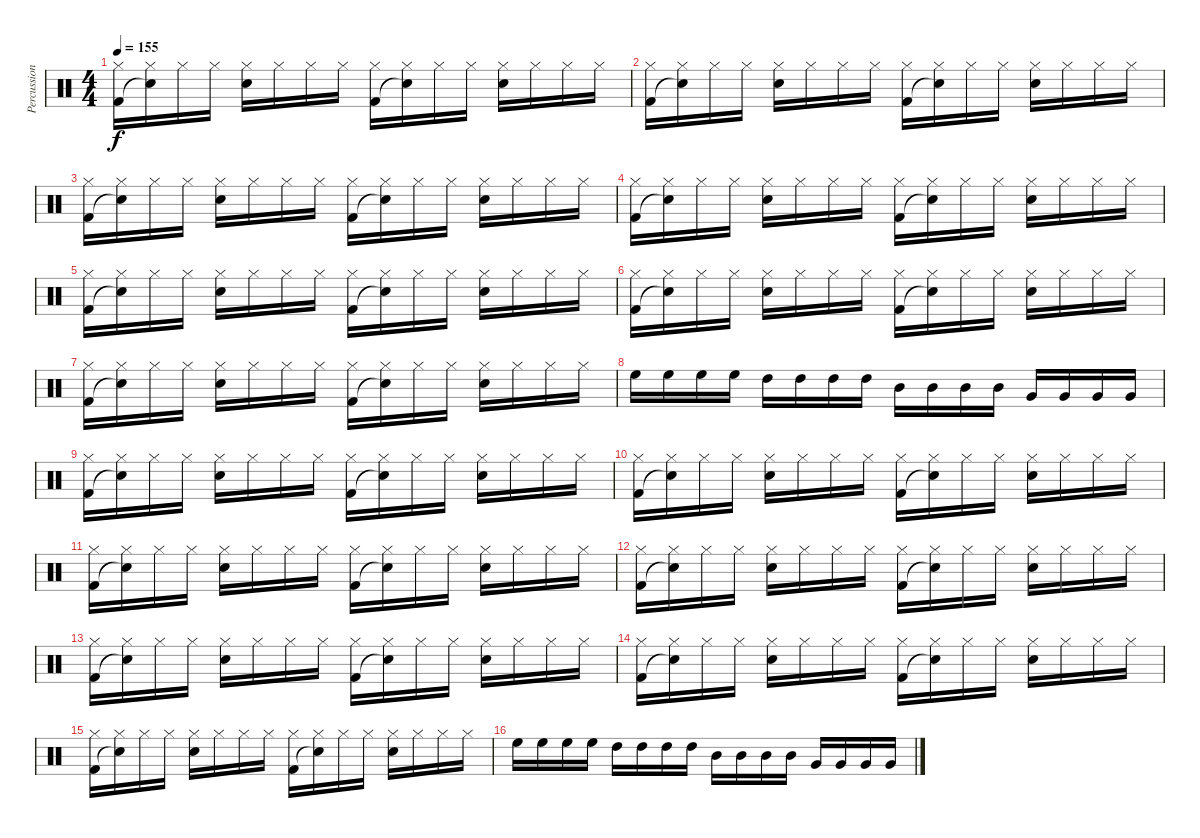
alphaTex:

\track ("Percussion" "Percussion") {instrument percussion}
\staff {score}
\articulation defaults
\ts (4 4)
\tempo 155
\clef neutral
\ks c
("Hi-Hat (closed)" "Kick (hit) 2").16{dy f} ("Hi-Hat (closed)" "Snare (hit)"{t}).16 "Hi-Hat (closed)".16 "Hi-Hat (closed)".16 ("Hi-Hat (closed)" "Snare (hit) 2").16 "Hi-Hat (closed)".16 "Hi-Hat (closed)".16 "Hi-Hat (closed)".16 ("Hi-Hat (closed)" "Kick (hit) 2").16 ("Hi-Hat (closed)" "Snare (hit)"{t}).16 "Hi-Hat (closed)".16 "Hi-Hat (closed)".16 ("Hi-Hat (closed)" "Snare (hit) 2").16 "Hi-Hat (closed)".16 "Hi-Hat (closed)".16 "Hi-Hat (closed)".16 |
("Hi-Hat (closed)" "Kick (hit) 2").16 ("Hi-Hat (closed)" "Snare (hit)"{t}).16 "Hi-Hat (closed)".16 "Hi-Hat (closed)".16 ("Hi-Hat (closed)" "Snare (hit) 2").16 "Hi-Hat (closed)".16 "Hi-Hat (closed)".16 "Hi-Hat (closed)".16 ("Hi-Hat (closed)" "Kick (hit) 2").16 ("Hi-Hat (closed)" "Snare (hit)"{t}).16 "Hi-Hat (closed)".16 "Hi-Hat (closed)".16 ("Hi-Hat (closed)" "Snare (hit) 2").16 "Hi-Hat (closed)".16 "Hi-Hat (closed)".16 "Hi-Hat (closed)".16 |
("Hi-Hat (closed)" "Kick (hit) 2").16 ("Hi-Hat (closed)" "Snare (hit)"{t}).16 "Hi-Hat (closed)".16 "Hi-Hat (closed)".16 ("Hi-Hat (closed)" "Snare (hit) 2").16 "Hi-Hat (closed)".16 "Hi-Hat (closed)".16 "Hi-Hat (closed)".16 ("Hi-Hat (closed)" "Kick (hit) 2").16 ("Hi-Hat (closed)" "Snare (hit)"{t}).16 "Hi-Hat (closed)".16 "Hi-Hat (closed)".16 ("Hi-Hat (closed)" "Snare (hit) 2").16 "Hi-Hat (closed)".16 "Hi-Hat (closed)".16 "Hi-Hat (closed)".16 |
("Hi-Hat (closed)" "Kick (hit) 2").16 ("Hi-Hat (closed)" "Snare (hit)"{t}).16 "Hi-Hat (closed)".16 "Hi-Hat (closed)".16 ("Hi-Hat (closed)" "Snare (hit) 2").16 "Hi-Hat (closed)".16 "Hi-Hat (closed)".16 "Hi-Hat (closed)".16 ("Hi-Hat (closed)" "Kick (hit) 2").16 ("Hi-Hat (closed)" "Snare (hit)"{t}).16 "Hi-Hat (closed)".16 "Hi-Hat (closed)".16 ("Hi-Hat (closed)" "Snare (hit) 2").16 "Hi-Hat (closed)".16 "Hi-Hat (closed)".16 "Hi-Hat (closed)".16 |
("Hi-Hat (closed)" "Kick (hit) 2").16 ("Hi-Hat (closed)" "Snare (hit)"{t}).16 "Hi-Hat (closed)".16 "Hi-Hat (closed)".16 ("Hi-Hat (closed)" "Snare (hit) 2").16 "Hi-Hat (closed)".16 "Hi-Hat (closed)".16 "Hi-Hat (closed)".16 ("Hi-Hat (closed)" "Kick (hit) 2").16 ("Hi-Hat (closed)" "Snare (hit)"{t}).16 "Hi-Hat (closed)".16 "Hi-Hat (closed)".16 ("Hi-Hat (closed)" "Snare (hit) 2").16 "Hi-Hat (closed)".16 "Hi-Hat (closed)".16 "Hi-Hat (closed)".16 |
("Hi-Hat (closed)" "Kick (hit) 2").16 ("Hi-Hat (closed)" "Snare (hit)"{t}).16 "Hi-Hat (closed)".16 "Hi-Hat (closed)".16 ("Hi-Hat (closed)" "Snare (hit) 2").16 "Hi-Hat (closed)".16 "Hi-Hat (closed)".16 "Hi-Hat (closed)".16 ("Hi-Hat (closed)" "Kick (hit) 2").16 ("Hi-Hat (closed)" "Snare (hit)"{t}).16 "Hi-Hat (closed)".16 "Hi-Hat (closed)".16 ("Hi-Hat (closed)" "Snare (hit) 2").16 "Hi-Hat (closed)".16 "Hi-Hat (closed)".16 "Hi-Hat (closed)".16 |
("Hi-Hat (closed)" "Kick (hit) 2").16 ("Hi-Hat (closed)" "Snare (hit)"{t}).16 "Hi-Hat (closed)".16 "Hi-Hat (closed)".16 ("Hi-Hat (closed)" "Snare (hit) 2").16 "Hi-Hat (closed)".16 "Hi-Hat (closed)".16 "Hi-Hat (closed)".16 ("Hi-Hat (closed)" "Kick (hit) 2").16 ("Hi-Hat (closed)" "Snare (hit)"{t}).16 "Hi-Hat (closed)".16 "Hi-Hat (closed)".16 ("Hi-Hat (closed)" "Snare (hit) 2").16 "Hi-Hat (closed)".16 "Hi-Hat (closed)".16 "Hi-Hat (closed)".16 |
"High Floor Tom (hit)".16 "High Floor Tom (hit)".16 "High Floor Tom (hit)".16 "High Floor Tom (hit)".16 "High Tom (hit)".16 "High Tom (hit)".16 "High Tom (hit)".16 "High Tom (hit)".16 "Mid Tom (hit)".16 "Mid Tom (hit)".16 "Mid Tom (hit)".16 "Mid Tom (hit)".16 "Very Low Tom (hit)".16 "Very Low Tom (hit)".16 "Very Low Tom (hit)".16 "Very Low Tom (hit)".16 |
("Hi-Hat (closed)" "Kick (hit) 2").16 ("Hi-Hat (closed)" "Snare (hit)"{t}).16 "Hi-Hat (closed)".16 "Hi-Hat (closed)".16 ("Hi-Hat (closed)" "Snare (hit) 2").16 "Hi-Hat (closed)".16 "Hi-Hat (closed)".16 "Hi-Hat (closed)".16 ("Hi-Hat (closed)" "Kick (hit) 2").16 ("Hi-Hat (closed)" "Snare (hit)"{t}).16 "Hi-Hat (closed)".16 "Hi-Hat (closed)".16 ("Hi-Hat (closed)" "Snare (hit) 2").16 "Hi-Hat (closed)".16 "Hi-Hat (closed)".16 "Hi-Hat (closed)".16 |
("Hi-Hat (closed)" "Kick (hit) 2").16 ("Hi-Hat (closed)" "Snare (hit)"{t}).16 "Hi-Hat (closed)".16 "Hi-Hat (closed)".16 ("Hi-Hat (closed)" "Snare (hit) 2").16 "Hi-Hat (closed)".16 "Hi-Hat (closed)".16 "Hi-Hat (closed)".16 ("Hi-Hat (closed)" "Kick (hit) 2").16 ("Hi-Hat (closed)" "Snare (hit)"{t}).16 "Hi-Hat (closed)".16 "Hi-Hat (closed)".16 ("Hi-Hat (closed)" "Snare (hit) 2").16 "Hi-Hat (closed)".16 "Hi-Hat (closed)".16 "Hi-Hat (closed)".16 |
("Hi-Hat (closed)" "Kick (hit) 2").16 ("Hi-Hat (closed)" "Snare (hit)"{t}).16 "Hi-Hat (closed)".16 "Hi-Hat (closed)".16 ("Hi-Hat (closed)" "Snare (hit) 2").16 "Hi-Hat (closed)".16 "Hi-Hat (closed)".16 "Hi-Hat (closed)".16 ("Hi-Hat (closed)" "Kick (hit) 2").16 ("Hi-Hat (closed)" "Snare (hit)"{t}).16 "Hi-Hat (closed)".16 "Hi-Hat (closed)".16 ("Hi-Hat (closed)" "Snare (hit) 2").16 "Hi-Hat (closed)".16 "Hi-Hat (closed)".16 "Hi-Hat (closed)".16 |
("Hi-Hat (closed)" "Kick (hit) 2").16 ("Hi-Hat (closed)" "Snare (hit)"{t}).16 "Hi-Hat (closed)".16 "Hi-Hat (closed)".16 ("Hi-Hat (closed)" "Snare (hit) 2").16 "Hi-Hat (closed)".16 "Hi-Hat (closed)".16 "Hi-Hat (closed)".16 ("Hi-Hat (closed)" "Kick (hit) 2").16 ("Hi-Hat (closed)" "Snare (hit)"{t}).16 "Hi-Hat (closed)".16 "Hi-Hat (closed)".16 ("Hi-Hat (closed)" "Snare (hit) 2").16 "Hi-Hat (closed)".16 "Hi-Hat (closed)".16 "Hi-Hat (closed)".16 |
("Hi-Hat (closed)" "Kick (hit) 2").16 ("Hi-Hat (closed)" "Snare (hit)"{t}).16 "Hi-Hat (closed)".16 "Hi-Hat (closed)".16 ("Hi-Hat (closed)" "Snare (hit) 2").16 "Hi-Hat (closed)".16 "Hi-Hat (closed)".16 "Hi-Hat (closed)".16 ("Hi-Hat (closed)" "Kick (hit) 2").16 ("Hi-Hat (closed)" "Snare (hit)"{t}).16 "Hi-Hat (closed)".16 "Hi-Hat (closed)".16 ("Hi-Hat (closed)" "Snare (hit) 2").16 "Hi-Hat (closed)".16 "Hi-Hat (closed)".16 "Hi-Hat (closed)".16 |
("Hi-Hat (closed)" "Kick (hit) 2").16 ("Hi-Hat (closed)" "Snare (hit)"{t}).16 "Hi-Hat (closed)".16 "Hi-Hat (closed)".16 ("Hi-Hat (closed)" "Snare (hit) 2").16 "Hi-Hat (closed)".16 "Hi-Hat (closed)".16 "Hi-Hat (closed)".16 ("Hi-Hat (closed)" "Kick (hit) 2").16 ("Hi-Hat (closed)" "Snare (hit)"{t}).16 "Hi-Hat (closed)".16 "Hi-Hat (closed)".16 ("Hi-Hat (closed)" "Snare (hit) 2").16 "Hi-Hat (closed)".16 "Hi-Hat (closed)".16 "Hi-Hat (closed)".16 |
("Hi-Hat (closed)" "Kick (hit) 2").16 ("Hi-Hat (closed)" "Snare (hit)"{t}).16 "Hi-Hat (closed)".16 "Hi-Hat (closed)".16 ("Hi-Hat (closed)" "Snare (hit) 2").16 "Hi-Hat (closed)".16 "Hi-Hat (closed)".16 "Hi-Hat (closed)".16 ("Hi-Hat (closed)" "Kick (hit) 2").16 ("Hi-Hat (closed)" "Snare (hit)"{t}).16 "Hi-Hat (closed)".16 "Hi-Hat (closed)".16 ("Hi-Hat (closed)" "Snare (hit) 2").16 "Hi-Hat (closed)".16 "Hi-Hat (closed)".16 "Hi-Hat (closed)".16 |
"High Floor Tom (hit)".16 "High Floor Tom (hit)".16 "High Floor Tom (hit)".16 "High Floor Tom (hit)".16 "High Tom (hit)".16 "High Tom (hit)".16 "High Tom (hit)".16 "High Tom (hit)".16 "Mid Tom (hit)".16 "Mid Tom (hit)".16 "Mid Tom (hit)".16 "Mid Tom (hit)".16 "Very Low Tom (hit)".16 "Very Low Tom (hit)".16 "Very Low Tom (hit)".16 "Very Low Tom (hit)".16
